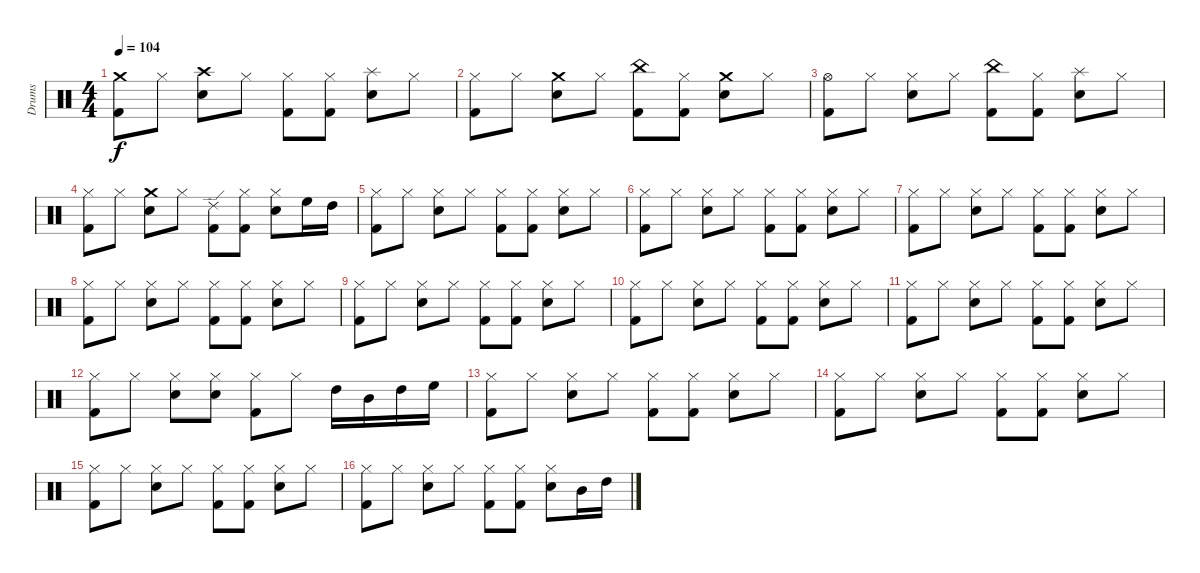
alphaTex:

\track ("Drums" "Drums") {instrument percussion}
\staff {score}
\articulation defaults
\ts (4 4)
\tempo 104
\clef neutral
\ks c
("Kick (hit) 2" "Crash medium (hit)").8{dy f} "Hi-Hat (closed)".8 ("Snare (hit) 2" "Crash high (hit)").8 "Hi-Hat (closed)".8 ("Kick (hit) 2" "Hi-Hat (closed)").8 ("Kick (hit) 2" "Hi-Hat (closed)").8 ("Snare (hit) 2" "Splash (hit)").8 "Hi-Hat (closed)".8 |
("Kick (hit) 2" "Hi-Hat (closed)").8 "Hi-Hat (closed)".8 ("Snare (hit) 2" "Crash medium (hit)").8 "Hi-Hat (closed)".8 ("Kick (hit) 2" "China (hit)").8 ("Kick (hit) 2" "Hi-Hat (closed)").8 ("Snare (hit) 2" "Crash medium (hit)").8 "Hi-Hat (closed)".8 |
("Kick (hit) 2" "Hi-Hat (open)").8 "Hi-Hat (closed)".8 ("Snare (hit) 2" "Hi-Hat (closed)").8 "Hi-Hat (closed)".8 ("Kick (hit) 2" "China (hit)").8 ("Kick (hit) 2" "Hi-Hat (closed)").8 ("Snare (hit) 2" "Splash (hit)").8 "Hi-Hat (closed)".8 |
("Kick (hit) 2" "Hi-Hat (closed)").8 "Hi-Hat (closed)".8 ("Snare (hit) 2" "Crash medium (hit)").8 "Hi-Hat (closed)".8 ("Kick (hit) 2" "Ride (edge) 2").8 ("Kick (hit) 2" "Hi-Hat (closed)").8 ("Snare (hit) 2" "Hi-Hat (closed)").8 "High Floor Tom (hit)".16 "High Tom (hit)".16 |
("Kick (hit) 2" "Hi-Hat (closed)").8 "Hi-Hat (closed)".8 ("Snare (hit) 2" "Hi-Hat (closed)").8 "Hi-Hat (closed)".8 ("Kick (hit) 2" "Hi-Hat (closed)").8 ("Kick (hit) 2" "Hi-Hat (closed)").8 ("Snare (hit) 2" "Hi-Hat (closed)").8 "Hi-Hat (closed)".8 |
("Kick (hit) 2" "Hi-Hat (closed)").8 "Hi-Hat (closed)".8 ("Snare (hit) 2" "Hi-Hat (closed)").8 "Hi-Hat (closed)".8 ("Kick (hit) 2" "Hi-Hat (closed)").8 ("Kick (hit) 2" "Hi-Hat (closed)").8 ("Snare (hit) 2" "Hi-Hat (closed)").8 "Hi-Hat (closed)".8 |
("Kick (hit) 2" "Hi-Hat (closed)").8 "Hi-Hat (closed)".8 ("Snare (hit) 2" "Hi-Hat (closed)").8 "Hi-Hat (closed)".8 ("Kick (hit) 2" "Hi-Hat (closed)").8 ("Kick (hit) 2" "Hi-Hat (closed)").8 ("Snare (hit) 2" "Hi-Hat (closed)").8 "Hi-Hat (closed)".8 |
("Kick (hit) 2" "Hi-Hat (closed)").8 "Hi-Hat (closed)".8 ("Snare (hit) 2" "Hi-Hat (closed)").8 "Hi-Hat (closed)".8 ("Kick (hit) 2" "Hi-Hat (closed)").8 ("Kick (hit) 2" "Hi-Hat (closed)").8 ("Snare (hit) 2" "Hi-Hat (closed)").8 "Hi-Hat (closed)".8 |
("Kick (hit) 2" "Hi-Hat (closed)").8 "Hi-Hat (closed)".8 ("Snare (hit) 2" "Hi-Hat (closed)").8 "Hi-Hat (closed)".8 ("Kick (hit) 2" "Hi-Hat (closed)").8 ("Kick (hit) 2" "Hi-Hat (closed)").8 ("Snare (hit) 2" "Hi-Hat (closed)").8 "Hi-Hat (closed)".8 |
("Kick (hit) 2" "Hi-Hat (closed)").8 "Hi-Hat (closed)".8 ("Snare (hit) 2" "Hi-Hat (closed)").8 "Hi-Hat (closed)".8 ("Kick (hit) 2" "Hi-Hat (closed)").8 ("Kick (hit) 2" "Hi-Hat (closed)").8 ("Snare (hit) 2" "Hi-Hat (closed)").8 "Hi-Hat (closed)".8 |
("Kick (hit) 2" "Hi-Hat (closed)").8 "Hi-Hat (closed)".8 ("Snare (hit) 2" "Hi-Hat (closed)").8 "Hi-Hat (closed)".8 ("Kick (hit) 2" "Hi-Hat (closed)").8 ("Kick (hit) 2" "Hi-Hat (closed)").8 ("Snare (hit) 2" "Hi-Hat (closed)").8 "Hi-Hat (closed)".8 |
("Kick (hit) 2" "Hi-Hat (closed)").8 "Hi-Hat (closed)".8 ("Snare (hit) 2" "Hi-Hat (closed)").8 ("Snare (hit) 2" "Hi-Hat (closed)").8 ("Kick (hit) 2" "Hi-Hat (closed)").8 "Hi-Hat (closed)".8 "High Tom (hit)".16 "Mid Tom (hit)".16 "High Tom (hit)".16 "High Floor Tom (hit)".16 |
("Kick (hit) 2" "Hi-Hat (closed)").8 "Hi-Hat (closed)".8 ("Snare (hit) 2" "Hi-Hat (closed)").8 "Hi-Hat (closed)".8 ("Kick (hit) 2" "Hi-Hat (closed)").8 ("Kick (hit) 2" "Hi-Hat (closed)").8 ("Snare (hit) 2" "Hi-Hat (closed)").8 "Hi-Hat (closed)".8 |
("Kick (hit) 2" "Hi-Hat (closed)").8 "Hi-Hat (closed)".8 ("Snare (hit) 2" "Hi-Hat (closed)").8 "Hi-Hat (closed)".8 ("Kick (hit) 2" "Hi-Hat (closed)").8 ("Kick (hit) 2" "Hi-Hat (closed)").8 ("Snare (hit) 2" "Hi-Hat (closed)").8 "Hi-Hat (closed)".8 |
("Kick (hit) 2" "Hi-Hat (closed)").8 "Hi-Hat (closed)".8 ("Snare (hit) 2" "Hi-Hat (closed)").8 "Hi-Hat (closed)".8 ("Kick (hit) 2" "Hi-Hat (closed)").8 ("Kick (hit) 2" "Hi-Hat (closed)").8 ("Snare (hit) 2" "Hi-Hat (closed)").8 "Hi-Hat (closed)".8 |
("Kick (hit) 2" "Hi-Hat (closed)").8 "Hi-Hat (closed)".8 ("Snare (hit) 2" "Hi-Hat (closed)").8 "Hi-Hat (closed)".8 ("Kick (hit) 2" "Hi-Hat (closed)").8 ("Kick (hit) 2" "Hi-Hat (closed)").8 ("Snare (hit) 2" "Hi-Hat (closed)").8 "Mid Tom (hit)".16 "High Tom (hit)".16
